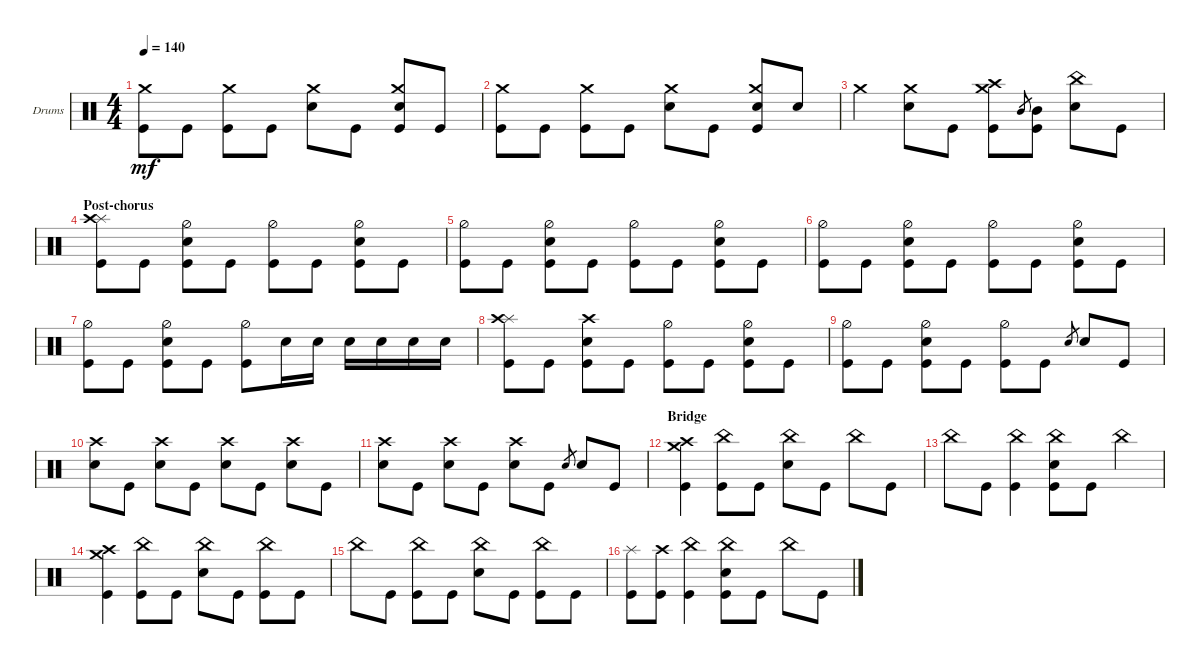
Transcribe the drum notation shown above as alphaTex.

\bracketExtendMode groupsimilarinstruments
\firstSystemTrackNameOrientation horizontal
\otherSystemsTrackNameOrientation horizontal
\track ("Drumkit" "Drums") {instrument percussion}
\staff {score}
\articulation defaults
\ts (4 4)
\tempo 140
\clef neutral
\ks c
("Kick (hit)" "Crash medium (hit)").8{dy mf} "Kick (hit)".8 ("Kick (hit)" "Crash medium (hit)").8 "Kick (hit)".8 ("Snare (hit) 2" "Crash medium (hit)").8 "Kick (hit)".8 ("Kick (hit)" "Crash medium (hit)" "Snare (hit) 2").8 "Kick (hit)".8 |
("Kick (hit)" "Crash medium (hit)").8 "Kick (hit)".8 ("Kick (hit)" "Crash medium (hit)").8 "Kick (hit)".8 ("Snare (hit) 2" "Crash medium (hit)").8 "Kick (hit)".8 ("Kick (hit)" "Crash medium (hit)" "Snare (hit) 2").8 "Snare (hit) 2".8 |
"Crash medium (hit)".4 ("Crash medium (hit)" "Snare (hit) 2").8 "Kick (hit)".8 ("Crash high (hit)" "Kick (hit)" "Crash medium (hit)").8 "Mid Tom (hit)".8{gr} ("Kick (hit)" "Mid Tom (hit)").8 ("Snare (hit) 2" "China (hit)").8 "Kick (hit)".8 |
\section ("" "Post-chorus")
("Kick (hit)" "Splash (hit)" "Crash high (hit)").8 "Kick (hit)".8 ("Hi-Hat (half)" "Snare (hit) 2" "Kick (hit)").8 "Kick (hit)".8 ("Kick (hit)" "Hi-Hat (half)").8 "Kick (hit)".8 ("Hi-Hat (half)" "Snare (hit) 2" "Kick (hit)").8 "Kick (hit)".8 |
("Kick (hit)" "Hi-Hat (half)").8 "Kick (hit)".8 ("Hi-Hat (half)" "Snare (hit) 2" "Kick (hit)").8 "Kick (hit)".8 ("Kick (hit)" "Hi-Hat (half)").8 "Kick (hit)".8 ("Hi-Hat (half)" "Snare (hit) 2" "Kick (hit)").8 "Kick (hit)".8 |
("Kick (hit)" "Hi-Hat (half)").8 "Kick (hit)".8 ("Hi-Hat (half)" "Snare (hit) 2" "Kick (hit)").8 "Kick (hit)".8 ("Kick (hit)" "Hi-Hat (half)").8 "Kick (hit)".8 ("Hi-Hat (half)" "Snare (hit) 2" "Kick (hit)").8 "Kick (hit)".8 |
("Kick (hit)" "Hi-Hat (half)").8 "Kick (hit)".8 ("Hi-Hat (half)" "Snare (hit) 2" "Kick (hit)").8 "Kick (hit)".8 ("Kick (hit)" "Hi-Hat (half)").8 "Snare (hit) 2".16 "Snare (hit) 2".16 "Snare (hit) 2".16 "Snare (hit) 2".16 "Snare (hit) 2".16 "Snare (hit) 2".16 |
("Kick (hit)" "Splash (hit)" "Crash high (hit)").8 "Kick (hit)".8 ("Snare (hit) 2" "Kick (hit)" "Crash high (hit)").8 "Kick (hit)".8 ("Kick (hit)" "Hi-Hat (half)").8 "Kick (hit)".8 ("Hi-Hat (half)" "Snare (hit) 2" "Kick (hit)").8 "Kick (hit)".8 |
("Kick (hit)" "Hi-Hat (half)").8 "Kick (hit)".8 ("Hi-Hat (half)" "Snare (hit) 2" "Kick (hit)").8 "Kick (hit)".8 ("Kick (hit)" "Hi-Hat (half)").8 "Kick (hit)".8 "Snare (hit) 2".8{gr} "Snare (hit) 2".8 "Kick (hit)".8 |
("Snare (hit) 2" "Crash high (hit)").8 "Kick (hit)".8 ("Snare (hit) 2" "Crash high (hit)").8 "Kick (hit)".8 ("Snare (hit) 2" "Crash high (hit)").8 "Kick (hit)".8 ("Snare (hit) 2" "Crash high (hit)").8 "Kick (hit)".8 |
("Snare (hit) 2" "Crash high (hit)").8 "Kick (hit)".8 ("Snare (hit) 2" "Crash high (hit)").8 "Kick (hit)".8 ("Snare (hit) 2" "Crash high (hit)").8 "Kick (hit)".8 "Snare (hit) 2".8{gr} "Snare (hit) 2".8 "Kick (hit)".8 |
\section ("" "Bridge")
("Kick (hit)" "Crash high (hit)" "Crash medium (hit)").4 ("Kick (hit)" "China (hit)").8 "Kick (hit)".8 ("Snare (hit) 2" "China (hit)").8 "Kick (hit)".8 "China (hit)".8 "Kick (hit)".8 |
"China (hit)".8 "Kick (hit)".8 ("Kick (hit)" "China (hit)").4 ("Snare (hit) 2" "Kick (hit)" "China (hit)").8 "Kick (hit)".8 "China (hit)".4 |
("Kick (hit)" "Crash high (hit)" "Crash medium (hit)").4 ("Kick (hit)" "China (hit)").8 "Kick (hit)".8 ("Snare (hit) 2" "China (hit)").8 "Kick (hit)".8 ("Kick (hit)" "China (hit)").8 "Kick (hit)".8 |
"China (hit)".8 "Kick (hit)".8 ("Kick (hit)" "China (hit)").8 "Kick (hit)".8 ("Snare (hit) 2" "China (hit)").8 "Kick (hit)".8 ("Kick (hit)" "China (hit)").8 "Kick (hit)".8 |
("Kick (hit)" "Splash (hit)").8 ("Kick (hit)" "Crash high (hit)").8 ("Kick (hit)" "China (hit)").4 ("Snare (hit) 2" "Kick (hit)" "China (hit)").8 "Kick (hit)".8 "China (hit)".8 "Kick (hit)".8
